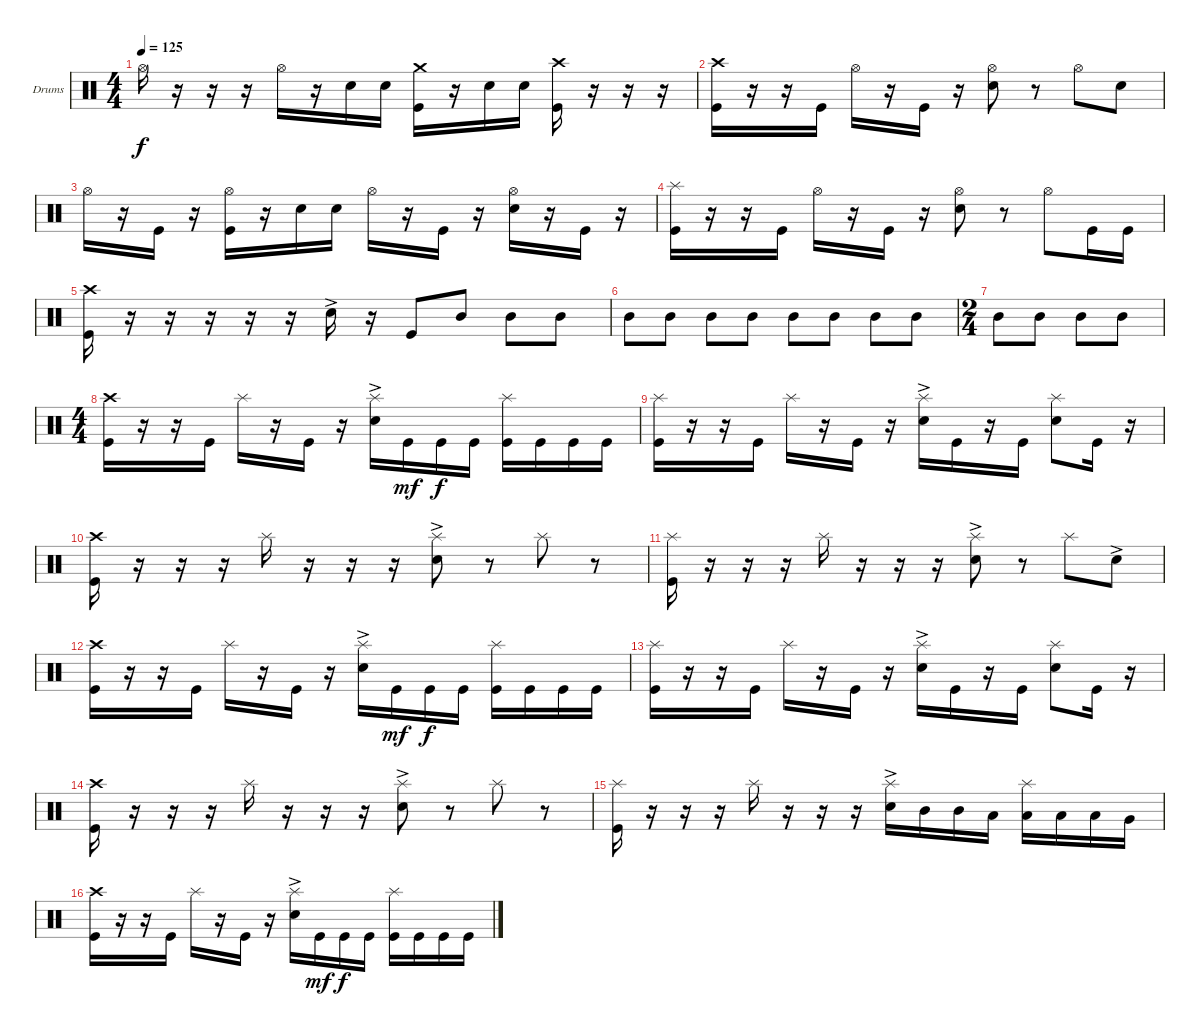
\defaultSystemsLayout 4
\bracketExtendMode groupsimilarinstruments
\firstSystemTrackNameOrientation horizontal
\otherSystemsTrackNameOrientation horizontal
\track ("Drumkit" "Drums") {instrument percussion}
\staff {score}
\articulation defaults
\ts (4 4)
\tempo 125
\clef neutral
\ks c "Hi-Hat (open)".16{dy f}
r.16 r.16 r.16 "Hi-Hat (open)".16 r.16 "Snare (hit) 2".16 "Snare (hit) 2".16 ("Kick (hit)" "Crash medium (hit)").16 r.16 "Snare (hit) 2".16 "Snare (hit) 2".16 ("Kick (hit)" "Crash high (hit)").16 r.16 r.16 r.16 |
("Kick (hit)" "Crash high (hit)").16 r.16 r.16 "Kick (hit)".16 "Hi-Hat (open)".16 r.16 "Kick (hit)".16 r.16 ("Snare (hit) 2" "Hi-Hat (open)").8 r.8 "Hi-Hat (open)".8 "Snare (hit) 2".8 |
"Hi-Hat (open)".16 r.16 "Kick (hit)".16 r.16 ("Kick (hit)" "Hi-Hat (open)").16 r.16 "Snare (hit) 2".16 "Snare (hit) 2".16 "Hi-Hat (open)".16 r.16 "Kick (hit)".16 r.16 ("Snare (hit) 2" "Hi-Hat (open)").16 r.16 "Kick (hit)".16 r.16 |
("Kick (hit)" "Splash (hit)").16 r.16 r.16 "Kick (hit)".16 "Hi-Hat (open)".16 r.16 "Kick (hit)".16 r.16 ("Snare (hit) 2" "Hi-Hat (open)").8 r.8 "Hi-Hat (open)".8 "Kick (hit)".16 "Kick (hit)".16 |
("Kick (hit)" "Crash high (hit)").16 r.16 r.16 r.16 r.16 r.16 "Snare (hit) 2"{ac}.16 r.16 "Kick (hit)".8 "Mid Tom (hit)".8 "Mid Tom (hit)".8 "Mid Tom (hit)".8 |
"Mid Tom (hit)".8 "Mid Tom (hit)".8 "Mid Tom (hit)".8 "Mid Tom (hit)".8 "Mid Tom (hit)".8 "Mid Tom (hit)".8 "Mid Tom (hit)".8 "Mid Tom (hit)".8 |
\ts (2 4)
"Mid Tom (hit)".8 "Mid Tom (hit)".8 "Mid Tom (hit)".8 "Mid Tom (hit)".8 |
\ts (4 4)
("Kick (hit)" "Crash high (hit)").16 r.16 r.16 "Kick (hit)".16 "Splash (hit)".16 r.16 "Kick (hit)".16 r.16 ("Snare (hit) 2"{ac} "Splash (hit)").16 "Kick (hit)".16{dy mf} "Kick (hit)".16{dy f} "Kick (hit)".16 ("Kick (hit)" "Splash (hit)").16 "Kick (hit)".16 "Kick (hit)".16 "Kick (hit)".16 |
("Kick (hit)" "Splash (hit)").16 r.16 r.16 "Kick (hit)".16 "Splash (hit)".16 r.16 "Kick (hit)".16 r.16 ("Snare (hit) 2"{ac} "Splash (hit)").16 "Kick (hit)".16 r.16 "Kick (hit)".16 ("Snare (hit) 2" "Splash (hit)").8 "Kick (hit)".16 r.16 |
("Kick (hit)" "Crash high (hit)").16 r.16 r.16 r.16 "Splash (hit)".16 r.16 r.16 r.16 ("Snare (hit) 2"{ac} "Splash (hit)").8 r.8 "Splash (hit)".8 r.8 |
("Kick (hit)" "Splash (hit)").16 r.16 r.16 r.16 "Splash (hit)".16 r.16 r.16 r.16 ("Snare (hit) 2"{ac} "Splash (hit)").8 r.8 "Splash (hit)".8 "Snare (hit) 2"{ac}.8 |
("Kick (hit)" "Crash high (hit)").16 r.16 r.16 "Kick (hit)".16 "Splash (hit)".16 r.16 "Kick (hit)".16 r.16 ("Snare (hit) 2"{ac} "Splash (hit)").16 "Kick (hit)".16{dy mf} "Kick (hit)".16{dy f} "Kick (hit)".16 ("Kick (hit)" "Splash (hit)").16 "Kick (hit)".16 "Kick (hit)".16 "Kick (hit)".16 |
("Kick (hit)" "Splash (hit)").16 r.16 r.16 "Kick (hit)".16 "Splash (hit)".16 r.16 "Kick (hit)".16 r.16 ("Snare (hit) 2"{ac} "Splash (hit)").16 "Kick (hit)".16 r.16 "Kick (hit)".16 ("Snare (hit) 2" "Splash (hit)").8 "Kick (hit)".16 r.16 |
("Kick (hit)" "Crash high (hit)").16 r.16 r.16 r.16 "Splash (hit)".16 r.16 r.16 r.16 ("Snare (hit) 2"{ac} "Splash (hit)").8 r.8 "Splash (hit)".8 r.8 |
("Kick (hit)" "Splash (hit)").16 r.16 r.16 r.16 "Splash (hit)".16 r.16 r.16 r.16 ("Snare (hit) 2"{ac} "Splash (hit)").16 "Mid Tom (hit)".16 "Mid Tom (hit)".16 "Low Tom (hit)".16 ("Low Tom (hit)" "Splash (hit)").16 "Low Tom (hit)".16 "Low Tom (hit)".16 "Very Low Tom (hit)".16 |
("Kick (hit)" "Crash high (hit)").16 r.16 r.16 "Kick (hit)".16 "Splash (hit)".16 r.16 "Kick (hit)".16 r.16 ("Snare (hit) 2"{ac} "Splash (hit)").16 "Kick (hit)".16{dy mf} "Kick (hit)".16{dy f} "Kick (hit)".16 ("Kick (hit)" "Splash (hit)").16 "Kick (hit)".16 "Kick (hit)".16 "Kick (hit)".16
